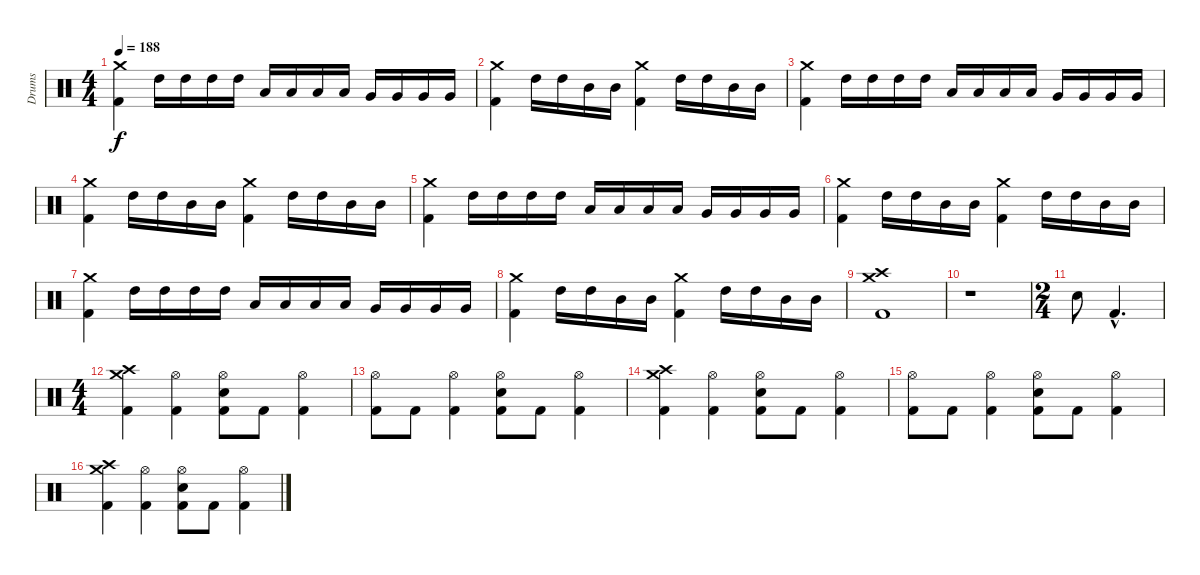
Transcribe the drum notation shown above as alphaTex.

\track ("Drums" "Drums") {instrument percussion}
\staff {score}
\articulation defaults
\ts (4 4)
\tempo 188
\clef neutral
\ks c
("Crash medium (hit)" "Kick (hit) 2").4{dy f} "High Tom (hit)".16 "High Tom (hit)".16 "High Tom (hit)".16 "High Tom (hit)".16 "Low Tom (hit)".16 "Low Tom (hit)".16 "Low Tom (hit)".16 "Low Tom (hit)".16 "Very Low Tom (hit)".16 "Very Low Tom (hit)".16 "Very Low Tom (hit)".16 "Very Low Tom (hit)".16 |
("Crash medium (hit)" "Kick (hit) 2").4 "High Tom (hit)".16 "High Tom (hit)".16 "Mid Tom (hit)".16 "Mid Tom (hit)".16 ("Crash medium (hit)" "Kick (hit) 2").4 "High Tom (hit)".16 "High Tom (hit)".16 "Mid Tom (hit)".16 "Mid Tom (hit)".16 |
("Crash medium (hit)" "Kick (hit) 2").4 "High Tom (hit)".16 "High Tom (hit)".16 "High Tom (hit)".16 "High Tom (hit)".16 "Low Tom (hit)".16 "Low Tom (hit)".16 "Low Tom (hit)".16 "Low Tom (hit)".16 "Very Low Tom (hit)".16 "Very Low Tom (hit)".16 "Very Low Tom (hit)".16 "Very Low Tom (hit)".16 |
("Crash medium (hit)" "Kick (hit) 2").4 "High Tom (hit)".16 "High Tom (hit)".16 "Mid Tom (hit)".16 "Mid Tom (hit)".16 ("Crash medium (hit)" "Kick (hit) 2").4 "High Tom (hit)".16 "High Tom (hit)".16 "Mid Tom (hit)".16 "Mid Tom (hit)".16 |
("Crash medium (hit)" "Kick (hit) 2").4 "High Tom (hit)".16 "High Tom (hit)".16 "High Tom (hit)".16 "High Tom (hit)".16 "Low Tom (hit)".16 "Low Tom (hit)".16 "Low Tom (hit)".16 "Low Tom (hit)".16 "Very Low Tom (hit)".16 "Very Low Tom (hit)".16 "Very Low Tom (hit)".16 "Very Low Tom (hit)".16 |
("Crash medium (hit)" "Kick (hit) 2").4 "High Tom (hit)".16 "High Tom (hit)".16 "Mid Tom (hit)".16 "Mid Tom (hit)".16 ("Crash medium (hit)" "Kick (hit) 2").4 "High Tom (hit)".16 "High Tom (hit)".16 "Mid Tom (hit)".16 "Mid Tom (hit)".16 |
("Crash medium (hit)" "Kick (hit) 2").4 "High Tom (hit)".16 "High Tom (hit)".16 "High Tom (hit)".16 "High Tom (hit)".16 "Low Tom (hit)".16 "Low Tom (hit)".16 "Low Tom (hit)".16 "Low Tom (hit)".16 "Very Low Tom (hit)".16 "Very Low Tom (hit)".16 "Very Low Tom (hit)".16 "Very Low Tom (hit)".16 |
("Crash medium (hit)" "Kick (hit) 2").4 "High Tom (hit)".16 "High Tom (hit)".16 "Mid Tom (hit)".16 "Mid Tom (hit)".16 ("Crash medium (hit)" "Kick (hit) 2").4 "High Tom (hit)".16 "High Tom (hit)".16 "Mid Tom (hit)".16 "Mid Tom (hit)".16 |
("Crash medium (hit)" "Crash high (hit)" "Kick (hit) 2").1 |
r.1 |
\ts (2 4)
"Snare (hit) 2".8 "Kick (hit) 2"{hac}.4{d} |
\ts (4 4)
("Crash medium (hit)" "Crash high (hit)" "Kick (hit) 2").4 ("Hi-Hat (open)" "Kick (hit) 2").4 ("Hi-Hat (open)" "Snare (hit) 2" "Kick (hit) 2").8 "Kick (hit) 2".8 ("Hi-Hat (open)" "Kick (hit) 2").4 |
("Hi-Hat (open)" "Kick (hit) 2").8 "Kick (hit) 2".8 ("Hi-Hat (open)" "Kick (hit) 2").4 ("Hi-Hat (open)" "Snare (hit) 2" "Kick (hit) 2").8 "Kick (hit) 2".8 ("Hi-Hat (open)" "Kick (hit) 2").4 |
("Crash medium (hit)" "Crash high (hit)" "Kick (hit) 2").4 ("Hi-Hat (open)" "Kick (hit) 2").4 ("Hi-Hat (open)" "Snare (hit) 2" "Kick (hit) 2").8 "Kick (hit) 2".8 ("Hi-Hat (open)" "Kick (hit) 2").4 |
("Hi-Hat (open)" "Kick (hit) 2").8 "Kick (hit) 2".8 ("Hi-Hat (open)" "Kick (hit) 2").4 ("Hi-Hat (open)" "Snare (hit) 2" "Kick (hit) 2").8 "Kick (hit) 2".8 ("Hi-Hat (open)" "Kick (hit) 2").4 |
("Crash medium (hit)" "Crash high (hit)" "Kick (hit) 2").4 ("Hi-Hat (open)" "Kick (hit) 2").4 ("Hi-Hat (open)" "Snare (hit) 2" "Kick (hit) 2").8 "Kick (hit) 2".8 ("Hi-Hat (open)" "Kick (hit) 2").4
